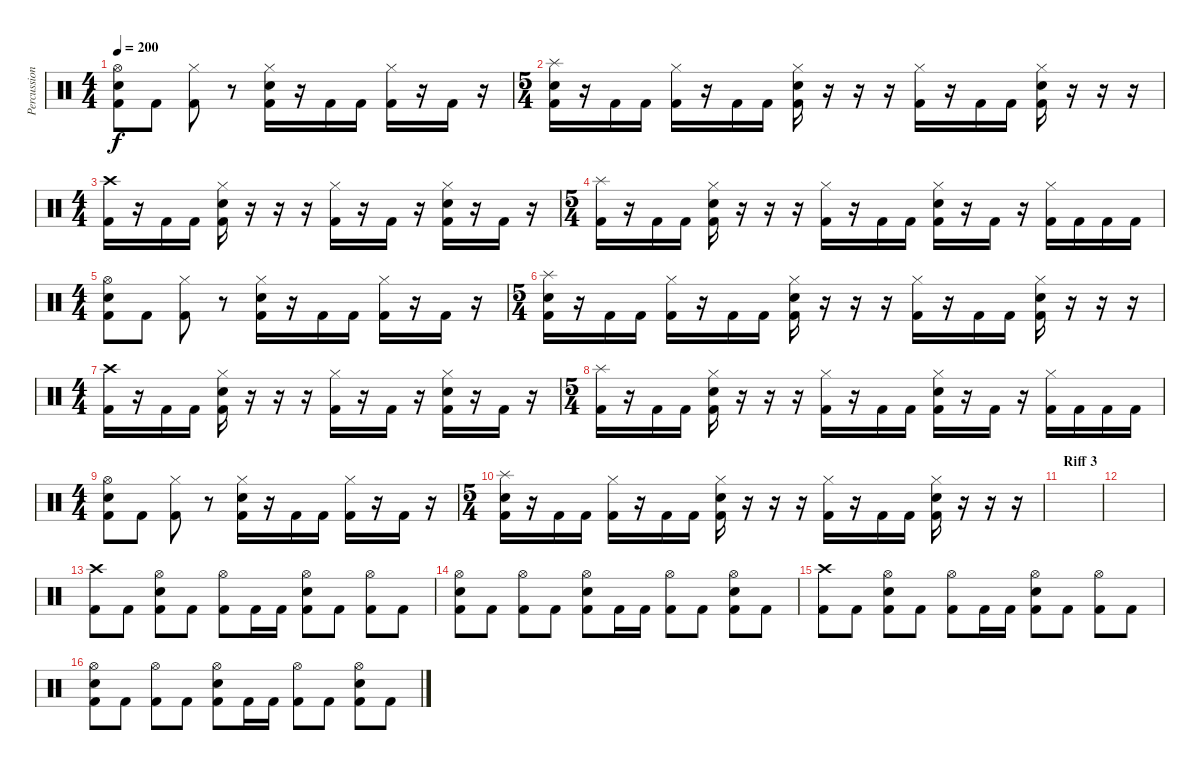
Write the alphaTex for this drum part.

\track ("Percussion" "Percussion") {instrument percussion}
\staff {score}
\articulation defaults
\ts (4 4)
\tempo 200
\clef neutral
\ks c
("Hi-Hat (open)" "Electric Snare (hit)" "Kick (hit) 2").8{dy f} "Kick (hit) 2".8 ("Hi-Hat (closed)" "Kick (hit) 2").8 r.8 ("Hi-Hat (closed)" "Electric Snare (hit)" "Kick (hit) 2").16 r.16 "Kick (hit) 2".16 "Kick (hit) 2".16 ("Hi-Hat (closed)" "Kick (hit) 2").16 r.16 "Kick (hit) 2".16 r.16 |
\ts (5 4)
("Splash (hit)" "Electric Snare (hit)" "Kick (hit) 2").16 r.16 "Kick (hit) 2".16 "Kick (hit) 2".16 ("Hi-Hat (closed)" "Kick (hit) 2").16 r.16 "Kick (hit) 2".16 "Kick (hit) 2".16 ("Hi-Hat (closed)" "Electric Snare (hit)" "Kick (hit) 2").16 r.16 r.16 r.16 ("Hi-Hat (closed)" "Kick (hit) 2").16 r.16 "Kick (hit) 2".16 "Kick (hit) 2".16 ("Hi-Hat (closed)" "Electric Snare (hit)" "Kick (hit) 2").16 r.16 r.16 r.16 |
\ts (4 4)
("Crash high (hit)" "Kick (hit) 2").16 r.16 "Kick (hit) 2".16 "Kick (hit) 2".16 ("Hi-Hat (closed)" "Electric Snare (hit)" "Kick (hit) 2").16 r.16 r.16 r.16 ("Hi-Hat (closed)" "Kick (hit) 2").16 r.16 "Kick (hit) 2".16 r.16 ("Hi-Hat (closed)" "Electric Snare (hit)" "Kick (hit) 2").16 r.16 "Kick (hit) 2".16 r.16 |
\ts (5 4)
("Splash (hit)" "Kick (hit) 2").16 r.16 "Kick (hit) 2".16 "Kick (hit) 2".16 ("Hi-Hat (closed)" "Electric Snare (hit)" "Kick (hit) 2").16 r.16 r.16 r.16 ("Hi-Hat (closed)" "Kick (hit) 2").16 r.16 "Kick (hit) 2".16 "Kick (hit) 2".16 ("Hi-Hat (closed)" "Electric Snare (hit)" "Kick (hit) 2").16 r.16 "Kick (hit) 2".16 r.16 ("Hi-Hat (closed)" "Kick (hit) 2").16 "Kick (hit) 2".16 "Kick (hit) 2".16 "Kick (hit) 2".16 |
\ts (4 4)
("Hi-Hat (open)" "Electric Snare (hit)" "Kick (hit) 2").8 "Kick (hit) 2".8 ("Hi-Hat (closed)" "Kick (hit) 2").8 r.8 ("Hi-Hat (closed)" "Electric Snare (hit)" "Kick (hit) 2").16 r.16 "Kick (hit) 2".16 "Kick (hit) 2".16 ("Hi-Hat (closed)" "Kick (hit) 2").16 r.16 "Kick (hit) 2".16 r.16 |
\ts (5 4)
("Splash (hit)" "Electric Snare (hit)" "Kick (hit) 2").16 r.16 "Kick (hit) 2".16 "Kick (hit) 2".16 ("Hi-Hat (closed)" "Kick (hit) 2").16 r.16 "Kick (hit) 2".16 "Kick (hit) 2".16 ("Hi-Hat (closed)" "Electric Snare (hit)" "Kick (hit) 2").16 r.16 r.16 r.16 ("Hi-Hat (closed)" "Kick (hit) 2").16 r.16 "Kick (hit) 2".16 "Kick (hit) 2".16 ("Hi-Hat (closed)" "Electric Snare (hit)" "Kick (hit) 2").16 r.16 r.16 r.16 |
\ts (4 4)
("Crash high (hit)" "Kick (hit) 2").16 r.16 "Kick (hit) 2".16 "Kick (hit) 2".16 ("Hi-Hat (closed)" "Electric Snare (hit)" "Kick (hit) 2").16 r.16 r.16 r.16 ("Hi-Hat (closed)" "Kick (hit) 2").16 r.16 "Kick (hit) 2".16 r.16 ("Hi-Hat (closed)" "Electric Snare (hit)" "Kick (hit) 2").16 r.16 "Kick (hit) 2".16 r.16 |
\ts (5 4)
("Splash (hit)" "Kick (hit) 2").16 r.16 "Kick (hit) 2".16 "Kick (hit) 2".16 ("Hi-Hat (closed)" "Electric Snare (hit)" "Kick (hit) 2").16 r.16 r.16 r.16 ("Hi-Hat (closed)" "Kick (hit) 2").16 r.16 "Kick (hit) 2".16 "Kick (hit) 2".16 ("Hi-Hat (closed)" "Electric Snare (hit)" "Kick (hit) 2").16 r.16 "Kick (hit) 2".16 r.16 ("Hi-Hat (closed)" "Kick (hit) 2").16 "Kick (hit) 2".16 "Kick (hit) 2".16 "Kick (hit) 2".16 |
\ts (4 4)
("Hi-Hat (open)" "Electric Snare (hit)" "Kick (hit) 2").8 "Kick (hit) 2".8 ("Hi-Hat (closed)" "Kick (hit) 2").8 r.8 ("Hi-Hat (closed)" "Electric Snare (hit)" "Kick (hit) 2").16 r.16 "Kick (hit) 2".16 "Kick (hit) 2".16 ("Hi-Hat (closed)" "Kick (hit) 2").16 r.16 "Kick (hit) 2".16 r.16 |
\ts (5 4)
("Splash (hit)" "Electric Snare (hit)" "Kick (hit) 2").16 r.16 "Kick (hit) 2".16 "Kick (hit) 2".16 ("Hi-Hat (closed)" "Kick (hit) 2").16 r.16 "Kick (hit) 2".16 "Kick (hit) 2".16 ("Hi-Hat (closed)" "Electric Snare (hit)" "Kick (hit) 2").16 r.16 r.16 r.16 ("Hi-Hat (closed)" "Kick (hit) 2").16 r.16 "Kick (hit) 2".16 "Kick (hit) 2".16 ("Hi-Hat (closed)" "Electric Snare (hit)" "Kick (hit) 2").16 r.16 r.16 r.16 |
\section ("" "Riff 3")
|
|
("Crash high (hit)" "Kick (hit) 2").8 "Kick (hit) 2".8 ("Hi-Hat (open)" "Electric Snare (hit)" "Kick (hit) 2").8 "Kick (hit) 2".8 ("Hi-Hat (open)" "Kick (hit) 2").8 "Kick (hit) 2".16 "Kick (hit) 2".16 ("Hi-Hat (open)" "Electric Snare (hit)" "Kick (hit) 2").8 "Kick (hit) 2".8 ("Hi-Hat (open)" "Kick (hit) 2").8 "Kick (hit) 2".8 |
("Hi-Hat (open)" "Electric Snare (hit)" "Kick (hit) 2").8 "Kick (hit) 2".8 ("Hi-Hat (open)" "Kick (hit) 2").8 "Kick (hit) 2".8 ("Hi-Hat (open)" "Electric Snare (hit)" "Kick (hit) 2").8 "Kick (hit) 2".16 "Kick (hit) 2".16 ("Hi-Hat (open)" "Kick (hit) 2").8 "Kick (hit) 2".8 ("Hi-Hat (open)" "Electric Snare (hit)" "Kick (hit) 2").8 "Kick (hit) 2".8 |
("Crash high (hit)" "Kick (hit) 2").8 "Kick (hit) 2".8 ("Hi-Hat (open)" "Electric Snare (hit)" "Kick (hit) 2").8 "Kick (hit) 2".8 ("Hi-Hat (open)" "Kick (hit) 2").8 "Kick (hit) 2".16 "Kick (hit) 2".16 ("Hi-Hat (open)" "Electric Snare (hit)" "Kick (hit) 2").8 "Kick (hit) 2".8 ("Hi-Hat (open)" "Kick (hit) 2").8 "Kick (hit) 2".8 |
("Hi-Hat (open)" "Electric Snare (hit)" "Kick (hit) 2").8 "Kick (hit) 2".8 ("Hi-Hat (open)" "Kick (hit) 2").8 "Kick (hit) 2".8 ("Hi-Hat (open)" "Electric Snare (hit)" "Kick (hit) 2").8 "Kick (hit) 2".16 "Kick (hit) 2".16 ("Hi-Hat (open)" "Kick (hit) 2").8 "Kick (hit) 2".8 ("Hi-Hat (open)" "Electric Snare (hit)" "Kick (hit) 2").8 "Kick (hit) 2".8
